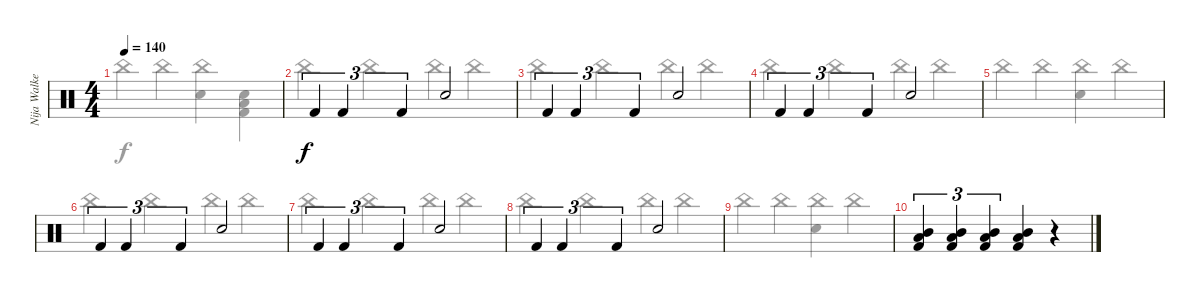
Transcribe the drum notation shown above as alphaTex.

\track ("Nija Walker" "Nija Walke") {instrument percussion bank 151}
\staff {score}
\articulation defaults
\voice
\ts (4 4)
\tempo 140
\clef neutral
\ks c
|
"Kick (hit) 2".4{tu (3 2)} "Kick (hit) 2".4{tu (3 2)} "Kick (hit) 2".4{tu (3 2)} "Electric Snare (hit)".2 |
"Kick (hit) 2".4{tu (3 2)} "Kick (hit) 2".4{tu (3 2)} "Kick (hit) 2".4{tu (3 2)} "Electric Snare (hit)".2 |
"Kick (hit) 2".4{tu (3 2)} "Kick (hit) 2".4{tu (3 2)} "Kick (hit) 2".4{tu (3 2)} "Electric Snare (hit)".2 |
|
"Kick (hit) 2".4{tu (3 2)} "Kick (hit) 2".4{tu (3 2)} "Kick (hit) 2".4{tu (3 2)} "Electric Snare (hit)".2 |
"Kick (hit) 2".4{tu (3 2)} "Kick (hit) 2".4{tu (3 2)} "Kick (hit) 2".4{tu (3 2)} "Electric Snare (hit)".2 |
"Kick (hit) 2".4{tu (3 2)} "Kick (hit) 2".4{tu (3 2)} "Kick (hit) 2".4{tu (3 2)} "Electric Snare (hit)".2 |
|
("Mid Tom (hit)" "Low Tom (hit)" "Kick (hit) 2").4{tu (3 2)} ("Mid Tom (hit)" "Low Tom (hit)" "Kick (hit) 2").4{tu (3 2)} ("Mid Tom (hit)" "Low Tom (hit)" "Kick (hit) 2").4{tu (3 2)} ("Mid Tom (hit)" "Low Tom (hit)" "Kick (hit) 2").4 r.4
\voice
\clef neutral
\ottava regular
\simile none
\ks c "China (hit)".4{dy f} "China (hit)".4
("China (hit)" "Electric Snare (hit)").4 ("Low Tom (hit)" "Electric Snare (hit)" "Kick (hit) 2").4 |
"China (hit)".4 "China (hit)".4 "China (hit)".4 "China (hit)".4 |
"China (hit)".4 "China (hit)".4 "China (hit)".4 "China (hit)".4 |
"China (hit)".4 "China (hit)".4 "China (hit)".4 "China (hit)".4 |
"China (hit)".4 "China (hit)".4 ("China (hit)" "Electric Snare (hit)").4 "China (hit)".4 |
"China (hit)".4 "China (hit)".4 "China (hit)".4 "China (hit)".4 |
"China (hit)".4 "China (hit)".4 "China (hit)".4 "China (hit)".4 |
"China (hit)".4 "China (hit)".4 "China (hit)".4 "China (hit)".4 |
"China (hit)".4 "China (hit)".4 ("China (hit)" "Electric Snare (hit)").4 "China (hit)".4 |
